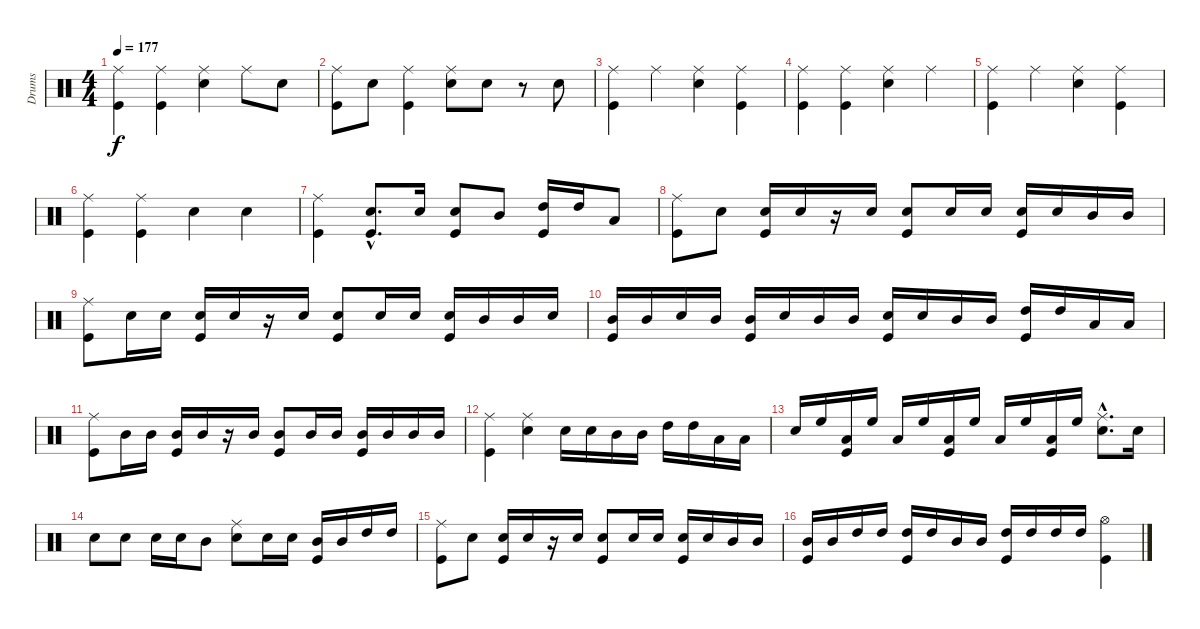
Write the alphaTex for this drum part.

\track ("Drums" "Drums") {instrument percussion}
\staff {score}
\articulation defaults
\ts (4 4)
\tempo 177
\clef neutral
\ks c
("Ride (middle)" "Kick (hit)").4{dy f} ("Ride (middle)" "Kick (hit)").4 ("Ride (middle)" "Snare (hit) 2").4 "Ride (middle)".8 "Snare (hit) 2".8 |
("Ride (middle)" "Kick (hit)").8 "Snare (hit) 2".8 ("Ride (middle)" "Kick (hit)").4 ("Ride (middle)" "Snare (hit) 2").8 "Snare (hit) 2".8 r.8 "Snare (hit) 2".8 |
("Ride (middle)" "Kick (hit)").4 "Ride (middle)".4 ("Ride (middle)" "Snare (hit) 2").4 ("Ride (middle)" "Kick (hit)").4 |
("Ride (middle)" "Kick (hit)").4 ("Ride (middle)" "Kick (hit)").4 ("Ride (middle)" "Snare (hit) 2").4 "Ride (middle)".4 |
("Ride (middle)" "Kick (hit)").4 "Ride (middle)".4 ("Ride (middle)" "Snare (hit) 2").4 ("Ride (middle)" "Kick (hit)").4 |
("Ride (middle)" "Kick (hit)").4 ("Ride (middle)" "Kick (hit)").4 "Snare (hit) 2".4 "Snare (hit) 2".4 |
("Ride (middle)" "Kick (hit)").4 ("Snare (hit) 2"{hac} "Kick (hit)"{hac}).8{d} "Snare (hit) 2".16 ("Snare (hit) 2" "Kick (hit)").8 "Mid Tom (hit)".8 ("High Tom (hit)" "Kick (hit)").16 "High Tom (hit)".16 "Low Tom (hit)".8 |
("Ride (middle)" "Kick (hit)").8 "Snare (hit) 2".8 ("Snare (hit) 2" "Kick (hit)").16 "Snare (hit) 2".16 r.16 "Snare (hit) 2".16 ("Snare (hit) 2" "Kick (hit)").8 "Snare (hit) 2".16 "Snare (hit) 2".16 ("Snare (hit) 2" "Kick (hit)").16 "Snare (hit) 2".16 "Mid Tom (hit)".16 "Mid Tom (hit)".16 |
("Ride (middle)" "Kick (hit)").8 "Snare (hit) 2".16 "Snare (hit) 2".16 ("Snare (hit) 2" "Kick (hit)").16 "Snare (hit) 2".16 r.16 "Snare (hit) 2".16 ("Snare (hit) 2" "Kick (hit)").8 "Snare (hit) 2".16 "Snare (hit) 2".16 ("Snare (hit) 2" "Kick (hit)").16 "Mid Tom (hit)".16 "Mid Tom (hit)".16 "Snare (hit) 2".16 |
("Mid Tom (hit)" "Kick (hit)").16 "Mid Tom (hit)".16 "Snare (hit) 2".16 "Mid Tom (hit)".16 ("Mid Tom (hit)" "Kick (hit)").16 "Snare (hit) 2".16 "Mid Tom (hit)".16 "Mid Tom (hit)".16 ("Snare (hit) 2" "Kick (hit)").16 "Snare (hit) 2".16 "Mid Tom (hit)".16 "Mid Tom (hit)".16 ("High Tom (hit)" "Kick (hit)").16 "High Tom (hit)".16 "Low Tom (hit)".16 "Low Tom (hit)".16 |
("Ride (middle)" "Kick (hit)").8 "Mid Tom (hit)".16 "Mid Tom (hit)".16 ("Mid Tom (hit)" "Kick (hit)").16 "Mid Tom (hit)".16 r.16 "Mid Tom (hit)".16 ("Mid Tom (hit)" "Kick (hit)").8 "Mid Tom (hit)".16 "Mid Tom (hit)".16 ("Mid Tom (hit)" "Kick (hit)").16 "Mid Tom (hit)".16 "Mid Tom (hit)".16 "Mid Tom (hit)".16 |
("Ride (middle)" "Kick (hit)").4 ("Ride (middle)" "Snare (hit) 2").4 "Snare (hit) 2".16 "Snare (hit) 2".16 "Mid Tom (hit)".16 "Mid Tom (hit)".16 "High Tom (hit)".16 "High Tom (hit)".16 "Low Tom (hit)".16 "Low Tom (hit)".16 |
"Snare (hit) 2".16 "High Floor Tom (hit)".16 ("Low Tom (hit)" "Kick (hit)").16 "High Floor Tom (hit)".16 "Low Tom (hit)".16 "High Floor Tom (hit)".16 ("Low Tom (hit)" "Kick (hit)").16 "High Floor Tom (hit)".16 "Low Tom (hit)".16 "High Floor Tom (hit)".16 ("Low Tom (hit)" "Kick (hit)").16 "High Floor Tom (hit)".16 ("Ride (middle)"{hac} "Snare (hit) 2"{hac}).8{d} "Snare (hit) 2".16 |
"Snare (hit) 2".8 "Snare (hit) 2".8 "Snare (hit) 2".16 "Snare (hit) 2".16 "Mid Tom (hit)".8 ("Ride (middle)" "Snare (hit) 2").8 "Snare (hit) 2".16 "Snare (hit) 2".16 ("Mid Tom (hit)" "Kick (hit)").16 "Mid Tom (hit)".16 "High Tom (hit)".16 "High Tom (hit)".16 |
("Ride (middle)" "Kick (hit)").8 "Snare (hit) 2".8 ("Snare (hit) 2" "Kick (hit)").16 "Snare (hit) 2".16 r.16 "Snare (hit) 2".16 ("Snare (hit) 2" "Kick (hit)").8 "Snare (hit) 2".16 "Snare (hit) 2".16 ("Snare (hit) 2" "Kick (hit)").16 "Snare (hit) 2".16 "Mid Tom (hit)".16 "Mid Tom (hit)".16 |
("Mid Tom (hit)" "Kick (hit)").16 "Mid Tom (hit)".16 "High Tom (hit)".16 "High Tom (hit)".16 ("High Tom (hit)" "Kick (hit)").16 "High Tom (hit)".16 "Mid Tom (hit)".16 "Mid Tom (hit)".16 ("High Tom (hit)" "Kick (hit)").16 "High Tom (hit)".16 "High Tom (hit)".16 "High Tom (hit)".16 ("Hi-Hat (open)" "Kick (hit)").4
